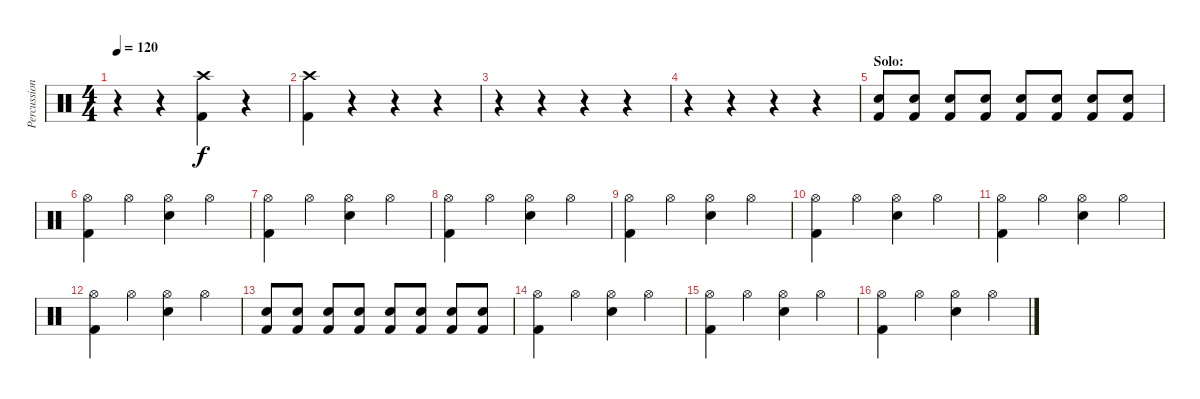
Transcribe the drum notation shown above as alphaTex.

\track ("Percussion" "Percussion") {instrument percussion}
\staff {score}
\articulation defaults
\ts (4 4)
\tempo 120
\clef neutral
\ks c
r.4{dy f} r.4 ("Crash high (hit)" "Kick (hit) 2").4 r.4 |
("Crash high (hit)" "Kick (hit) 2").4 r.4 r.4 r.4 |
r.4 r.4 r.4 r.4 |
r.4 r.4 r.4 r.4 |
\section ("" "Solo:")
("Electric Snare (hit)" "Kick (hit) 2").8 ("Electric Snare (hit)" "Kick (hit) 2").8 ("Electric Snare (hit)" "Kick (hit) 2").8 ("Electric Snare (hit)" "Kick (hit) 2").8 ("Electric Snare (hit)" "Kick (hit) 2").8 ("Electric Snare (hit)" "Kick (hit) 2").8 ("Electric Snare (hit)" "Kick (hit) 2").8 ("Electric Snare (hit)" "Kick (hit) 2").8 |
("Hi-Hat (open)" "Kick (hit) 2").4 "Hi-Hat (open)".4 ("Hi-Hat (open)" "Electric Snare (hit)").4 "Hi-Hat (open)".4 |
("Hi-Hat (open)" "Kick (hit) 2").4 "Hi-Hat (open)".4 ("Hi-Hat (open)" "Electric Snare (hit)").4 "Hi-Hat (open)".4 |
("Hi-Hat (open)" "Kick (hit) 2").4 "Hi-Hat (open)".4 ("Hi-Hat (open)" "Electric Snare (hit)").4 "Hi-Hat (open)".4 |
("Hi-Hat (open)" "Kick (hit) 2").4 "Hi-Hat (open)".4 ("Hi-Hat (open)" "Electric Snare (hit)").4 "Hi-Hat (open)".4 |
("Hi-Hat (open)" "Kick (hit) 2").4 "Hi-Hat (open)".4 ("Hi-Hat (open)" "Electric Snare (hit)").4 "Hi-Hat (open)".4 |
("Hi-Hat (open)" "Kick (hit) 2").4 "Hi-Hat (open)".4 ("Hi-Hat (open)" "Electric Snare (hit)").4 "Hi-Hat (open)".4 |
("Hi-Hat (open)" "Kick (hit) 2").4 "Hi-Hat (open)".4 ("Hi-Hat (open)" "Electric Snare (hit)").4 "Hi-Hat (open)".4 |
("Electric Snare (hit)" "Kick (hit) 2").8 ("Electric Snare (hit)" "Kick (hit) 2").8 ("Electric Snare (hit)" "Kick (hit) 2").8 ("Electric Snare (hit)" "Kick (hit) 2").8 ("Electric Snare (hit)" "Kick (hit) 2").8 ("Electric Snare (hit)" "Kick (hit) 2").8 ("Electric Snare (hit)" "Kick (hit) 2").8 ("Electric Snare (hit)" "Kick (hit) 2").8 |
("Hi-Hat (open)" "Kick (hit) 2").4 "Hi-Hat (open)".4 ("Hi-Hat (open)" "Electric Snare (hit)").4 "Hi-Hat (open)".4 |
("Hi-Hat (open)" "Kick (hit) 2").4 "Hi-Hat (open)".4 ("Hi-Hat (open)" "Electric Snare (hit)").4 "Hi-Hat (open)".4 |
("Hi-Hat (open)" "Kick (hit) 2").4 "Hi-Hat (open)".4 ("Hi-Hat (open)" "Electric Snare (hit)").4 "Hi-Hat (open)".4
